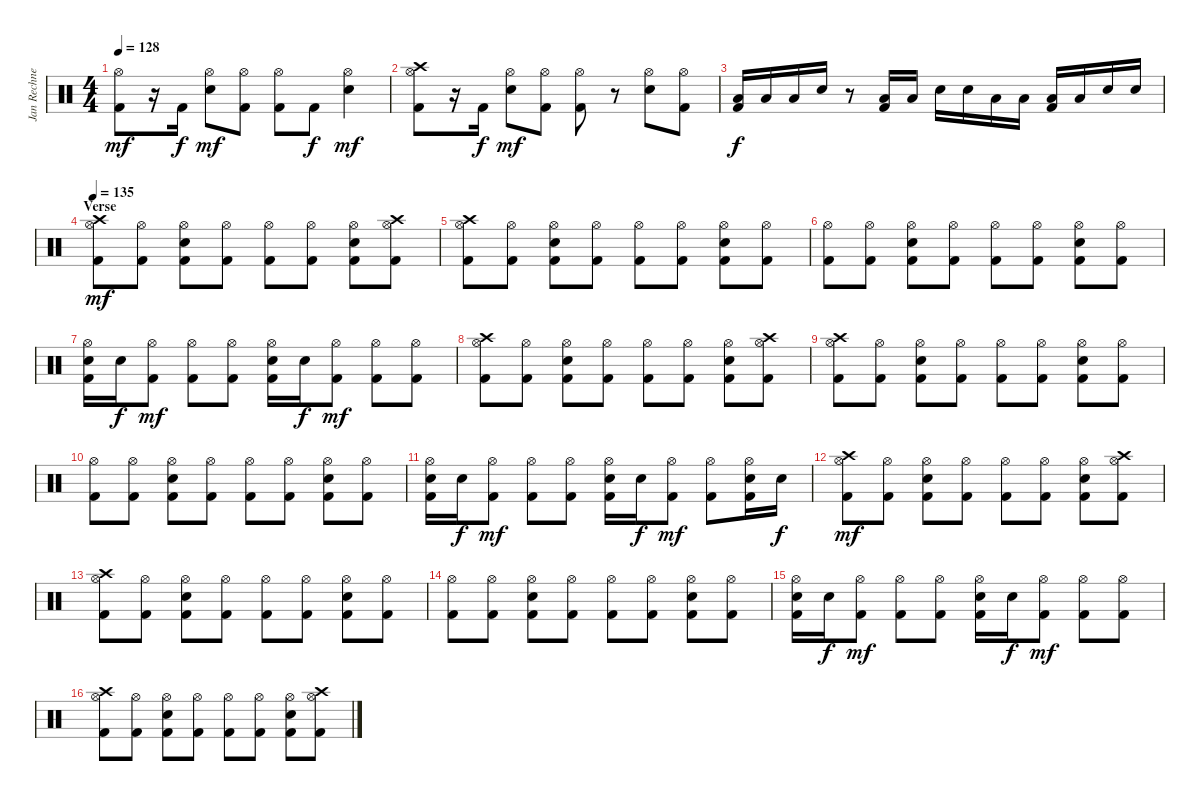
\track ("Jan Rechnerger" "Jan Rechne") {instrument percussion}
\staff {score}
\articulation defaults
\ts (4 4)
\tempo 128
\clef neutral
\ks c
("Hi-Hat (open)" "Kick (hit) 2").8{dy mf} r.16 "Kick (hit) 2".16{dy f} ("Hi-Hat (open)" "Snare (hit) 2").8{dy mf} ("Hi-Hat (open)" "Kick (hit) 2").8 ("Hi-Hat (open)" "Kick (hit) 2").8 "Kick (hit) 2".8{dy f} ("Hi-Hat (open)" "Snare (hit) 2").4{dy mf} |
("Crash high (hit)" "Hi-Hat (open)" "Kick (hit) 2").8 r.16 "Kick (hit) 2".16{dy f} ("Hi-Hat (open)" "Snare (hit) 2").8{dy mf} ("Hi-Hat (open)" "Kick (hit) 2").8 ("Hi-Hat (open)" "Kick (hit) 2").8 r.8 ("Hi-Hat (open)" "Snare (hit) 2").8 ("Hi-Hat (open)" "Kick (hit) 2").8 |
("Low Tom (hit)" "Kick (hit) 2").16{dy f} "Low Tom (hit)".16 "Low Tom (hit)".16 "Snare (hit) 2".16 r.8 ("Low Tom (hit)" "Kick (hit) 2").16 "Low Tom (hit)".16 "Snare (hit) 2".16 "Snare (hit) 2".16 "Low Tom (hit)".16 "Low Tom (hit)".16 ("Low Tom (hit)" "Kick (hit) 2").16 "Low Tom (hit)".16 "Snare (hit) 2".16 "Snare (hit) 2".16 |
\section ("" "Verse")
\tempo 135
("Crash high (hit)" "Hi-Hat (open)" "Kick (hit) 2").8{dy mf} ("Hi-Hat (open)" "Kick (hit) 2").8 ("Hi-Hat (open)" "Snare (hit) 2" "Kick (hit) 2").8 ("Hi-Hat (open)" "Kick (hit) 2").8 ("Hi-Hat (open)" "Kick (hit) 2").8 ("Hi-Hat (open)" "Kick (hit) 2").8 ("Hi-Hat (open)" "Snare (hit) 2" "Kick (hit) 2").8 ("Crash high (hit)" "Hi-Hat (open)" "Kick (hit) 2").8 |
("Crash high (hit)" "Hi-Hat (open)" "Kick (hit) 2").8 ("Hi-Hat (open)" "Kick (hit) 2").8 ("Hi-Hat (open)" "Snare (hit) 2" "Kick (hit) 2").8 ("Hi-Hat (open)" "Kick (hit) 2").8 ("Hi-Hat (open)" "Kick (hit) 2").8 ("Hi-Hat (open)" "Kick (hit) 2").8 ("Hi-Hat (open)" "Snare (hit) 2" "Kick (hit) 2").8 ("Hi-Hat (open)" "Kick (hit) 2").8 |
("Hi-Hat (open)" "Kick (hit) 2").8 ("Hi-Hat (open)" "Kick (hit) 2").8 ("Hi-Hat (open)" "Snare (hit) 2" "Kick (hit) 2").8 ("Hi-Hat (open)" "Kick (hit) 2").8 ("Hi-Hat (open)" "Kick (hit) 2").8 ("Hi-Hat (open)" "Kick (hit) 2").8 ("Hi-Hat (open)" "Snare (hit) 2" "Kick (hit) 2").8 ("Hi-Hat (open)" "Kick (hit) 2").8 |
("Hi-Hat (open)" "Snare (hit) 2" "Kick (hit) 2").16 "Snare (hit) 2".16{dy f} ("Hi-Hat (open)" "Kick (hit) 2").8{dy mf} ("Hi-Hat (open)" "Kick (hit) 2").8 ("Hi-Hat (open)" "Kick (hit) 2").8 ("Hi-Hat (open)" "Snare (hit) 2" "Kick (hit) 2").16 "Snare (hit) 2".16{dy f} ("Hi-Hat (open)" "Kick (hit) 2").8{dy mf} ("Hi-Hat (open)" "Kick (hit) 2").8 ("Hi-Hat (open)" "Kick (hit) 2").8 |
("Crash high (hit)" "Hi-Hat (open)" "Kick (hit) 2").8 ("Hi-Hat (open)" "Kick (hit) 2").8 ("Hi-Hat (open)" "Snare (hit) 2" "Kick (hit) 2").8 ("Hi-Hat (open)" "Kick (hit) 2").8 ("Hi-Hat (open)" "Kick (hit) 2").8 ("Hi-Hat (open)" "Kick (hit) 2").8 ("Hi-Hat (open)" "Snare (hit) 2" "Kick (hit) 2").8 ("Crash high (hit)" "Hi-Hat (open)" "Kick (hit) 2").8 |
("Crash high (hit)" "Hi-Hat (open)" "Kick (hit) 2").8 ("Hi-Hat (open)" "Kick (hit) 2").8 ("Hi-Hat (open)" "Snare (hit) 2" "Kick (hit) 2").8 ("Hi-Hat (open)" "Kick (hit) 2").8 ("Hi-Hat (open)" "Kick (hit) 2").8 ("Hi-Hat (open)" "Kick (hit) 2").8 ("Hi-Hat (open)" "Snare (hit) 2" "Kick (hit) 2").8 ("Hi-Hat (open)" "Kick (hit) 2").8 |
("Hi-Hat (open)" "Kick (hit) 2").8 ("Hi-Hat (open)" "Kick (hit) 2").8 ("Hi-Hat (open)" "Snare (hit) 2" "Kick (hit) 2").8 ("Hi-Hat (open)" "Kick (hit) 2").8 ("Hi-Hat (open)" "Kick (hit) 2").8 ("Hi-Hat (open)" "Kick (hit) 2").8 ("Hi-Hat (open)" "Snare (hit) 2" "Kick (hit) 2").8 ("Hi-Hat (open)" "Kick (hit) 2").8 |
("Hi-Hat (open)" "Snare (hit) 2" "Kick (hit) 2").16 "Snare (hit) 2".16{dy f} ("Hi-Hat (open)" "Kick (hit) 2").8{dy mf} ("Hi-Hat (open)" "Kick (hit) 2").8 ("Hi-Hat (open)" "Kick (hit) 2").8 ("Hi-Hat (open)" "Snare (hit) 2" "Kick (hit) 2").16 "Snare (hit) 2".16{dy f} ("Hi-Hat (open)" "Kick (hit) 2").8{dy mf} ("Hi-Hat (open)" "Kick (hit) 2").8 ("Hi-Hat (open)" "Snare (hit) 2" "Kick (hit) 2").16 "Snare (hit) 2".16{dy f} |
("Crash high (hit)" "Hi-Hat (open)" "Kick (hit) 2").8{dy mf} ("Hi-Hat (open)" "Kick (hit) 2").8 ("Hi-Hat (open)" "Snare (hit) 2" "Kick (hit) 2").8 ("Hi-Hat (open)" "Kick (hit) 2").8 ("Hi-Hat (open)" "Kick (hit) 2").8 ("Hi-Hat (open)" "Kick (hit) 2").8 ("Hi-Hat (open)" "Snare (hit) 2" "Kick (hit) 2").8 ("Crash high (hit)" "Hi-Hat (open)" "Kick (hit) 2").8 |
("Crash high (hit)" "Hi-Hat (open)" "Kick (hit) 2").8 ("Hi-Hat (open)" "Kick (hit) 2").8 ("Hi-Hat (open)" "Snare (hit) 2" "Kick (hit) 2").8 ("Hi-Hat (open)" "Kick (hit) 2").8 ("Hi-Hat (open)" "Kick (hit) 2").8 ("Hi-Hat (open)" "Kick (hit) 2").8 ("Hi-Hat (open)" "Snare (hit) 2" "Kick (hit) 2").8 ("Hi-Hat (open)" "Kick (hit) 2").8 |
("Hi-Hat (open)" "Kick (hit) 2").8 ("Hi-Hat (open)" "Kick (hit) 2").8 ("Hi-Hat (open)" "Snare (hit) 2" "Kick (hit) 2").8 ("Hi-Hat (open)" "Kick (hit) 2").8 ("Hi-Hat (open)" "Kick (hit) 2").8 ("Hi-Hat (open)" "Kick (hit) 2").8 ("Hi-Hat (open)" "Snare (hit) 2" "Kick (hit) 2").8 ("Hi-Hat (open)" "Kick (hit) 2").8 |
("Hi-Hat (open)" "Snare (hit) 2" "Kick (hit) 2").16 "Snare (hit) 2".16{dy f} ("Hi-Hat (open)" "Kick (hit) 2").8{dy mf} ("Hi-Hat (open)" "Kick (hit) 2").8 ("Hi-Hat (open)" "Kick (hit) 2").8 ("Hi-Hat (open)" "Snare (hit) 2" "Kick (hit) 2").16 "Snare (hit) 2".16{dy f} ("Hi-Hat (open)" "Kick (hit) 2").8{dy mf} ("Hi-Hat (open)" "Kick (hit) 2").8 ("Hi-Hat (open)" "Kick (hit) 2").8 |
("Crash high (hit)" "Hi-Hat (open)" "Kick (hit) 2").8 ("Hi-Hat (open)" "Kick (hit) 2").8 ("Hi-Hat (open)" "Snare (hit) 2" "Kick (hit) 2").8 ("Hi-Hat (open)" "Kick (hit) 2").8 ("Hi-Hat (open)" "Kick (hit) 2").8 ("Hi-Hat (open)" "Kick (hit) 2").8 ("Hi-Hat (open)" "Snare (hit) 2" "Kick (hit) 2").8 ("Crash high (hit)" "Hi-Hat (open)" "Kick (hit) 2").8
